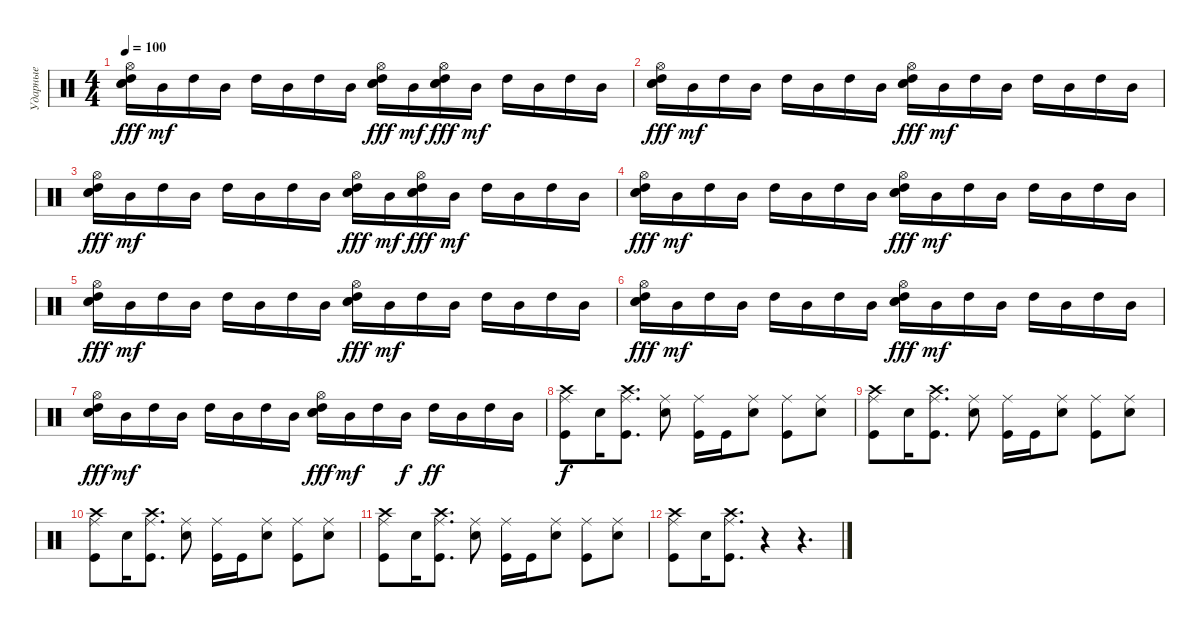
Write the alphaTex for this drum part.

\track ("Ударные" "Ударные") {instrument percussion}
\staff {score}
\articulation defaults
\ts (4 4)
\tempo 100
\clef neutral
\ks c
("Hi-Hat (open)" "High Tom (hit)" "Snare (hit) 2" "Electric Snare (hit)").16{dy fff} "Mid Tom (hit)".16{dy mf} "High Tom (hit)".16 "Mid Tom (hit)".16 "High Tom (hit)".16 "Mid Tom (hit)".16 "High Tom (hit)".16 "Mid Tom (hit)".16 ("Hi-Hat (open)" "High Tom (hit)" "Snare (hit) 2" "Electric Snare (hit)").16{dy fff} "Mid Tom (hit)".16{dy mf} ("Hi-Hat (open)" "High Tom (hit)" "Snare (hit) 2" "Electric Snare (hit)").16{dy fff} "Mid Tom (hit)".16{dy mf} "High Tom (hit)".16 "Mid Tom (hit)".16 "High Tom (hit)".16 "Mid Tom (hit)".16 |
("Hi-Hat (open)" "High Tom (hit)" "Snare (hit) 2" "Electric Snare (hit)").16{dy fff} "Mid Tom (hit)".16{dy mf} "High Tom (hit)".16 "Mid Tom (hit)".16 "High Tom (hit)".16 "Mid Tom (hit)".16 "High Tom (hit)".16 "Mid Tom (hit)".16 ("Hi-Hat (open)" "High Tom (hit)" "Snare (hit) 2" "Electric Snare (hit)").16{dy fff} "Mid Tom (hit)".16{dy mf} "High Tom (hit)".16 "Mid Tom (hit)".16 "High Tom (hit)".16 "Mid Tom (hit)".16 "High Tom (hit)".16 "Mid Tom (hit)".16 |
("Hi-Hat (open)" "High Tom (hit)" "Snare (hit) 2" "Electric Snare (hit)").16{dy fff} "Mid Tom (hit)".16{dy mf} "High Tom (hit)".16 "Mid Tom (hit)".16 "High Tom (hit)".16 "Mid Tom (hit)".16 "High Tom (hit)".16 "Mid Tom (hit)".16 ("Hi-Hat (open)" "High Tom (hit)" "Snare (hit) 2" "Electric Snare (hit)").16{dy fff} "Mid Tom (hit)".16{dy mf} ("Hi-Hat (open)" "High Tom (hit)" "Snare (hit) 2" "Electric Snare (hit)").16{dy fff} "Mid Tom (hit)".16{dy mf} "High Tom (hit)".16 "Mid Tom (hit)".16 "High Tom (hit)".16 "Mid Tom (hit)".16 |
("Hi-Hat (open)" "High Tom (hit)" "Snare (hit) 2" "Electric Snare (hit)").16{dy fff} "Mid Tom (hit)".16{dy mf} "High Tom (hit)".16 "Mid Tom (hit)".16 "High Tom (hit)".16 "Mid Tom (hit)".16 "High Tom (hit)".16 "Mid Tom (hit)".16 ("Hi-Hat (open)" "High Tom (hit)" "Snare (hit) 2" "Electric Snare (hit)").16{dy fff} "Mid Tom (hit)".16{dy mf} "High Tom (hit)".16 "Mid Tom (hit)".16 "High Tom (hit)".16 "Mid Tom (hit)".16 "High Tom (hit)".16 "Mid Tom (hit)".16 |
("Hi-Hat (open)" "High Tom (hit)" "Snare (hit) 2" "Electric Snare (hit)").16{dy fff} "Mid Tom (hit)".16{dy mf} "High Tom (hit)".16 "Mid Tom (hit)".16 "High Tom (hit)".16 "Mid Tom (hit)".16 "High Tom (hit)".16 "Mid Tom (hit)".16 ("Hi-Hat (open)" "High Tom (hit)" "Snare (hit) 2" "Electric Snare (hit)").16{dy fff} "Mid Tom (hit)".16{dy mf} "High Tom (hit)".16 "Mid Tom (hit)".16 "High Tom (hit)".16 "Mid Tom (hit)".16 "High Tom (hit)".16 "Mid Tom (hit)".16 |
("Hi-Hat (open)" "High Tom (hit)" "Snare (hit) 2" "Electric Snare (hit)").16{dy fff} "Mid Tom (hit)".16{dy mf} "High Tom (hit)".16 "Mid Tom (hit)".16 "High Tom (hit)".16 "Mid Tom (hit)".16 "High Tom (hit)".16 "Mid Tom (hit)".16 ("Hi-Hat (open)" "High Tom (hit)" "Snare (hit) 2" "Electric Snare (hit)").16{dy fff} "Mid Tom (hit)".16{dy mf} "High Tom (hit)".16 "Mid Tom (hit)".16 "High Tom (hit)".16 "Mid Tom (hit)".16 "High Tom (hit)".16 "Mid Tom (hit)".16 |
("Hi-Hat (open)" "High Tom (hit)" "Snare (hit) 2" "Electric Snare (hit)").16{dy fff} "Mid Tom (hit)".16{dy mf} "High Tom (hit)".16 "Mid Tom (hit)".16 "High Tom (hit)".16 "Mid Tom (hit)".16 "High Tom (hit)".16 "Mid Tom (hit)".16 ("Hi-Hat (open)" "High Tom (hit)" "Snare (hit) 2" "Electric Snare (hit)").16{dy fff} "Mid Tom (hit)".16{dy mf} "High Tom (hit)".16 "Mid Tom (hit)".16{dy f} "High Tom (hit)".16{dy ff} "Mid Tom (hit)".16 "High Tom (hit)".16 "Mid Tom (hit)".16 |
("Kick (hit)" "Ride (middle)" "Crash high (hit)").8{dy f} "Snare (hit) 2".16 ("Kick (hit)" "Ride (middle)" "Crash high (hit)").8{d} ("Snare (hit) 2" "Ride (middle)").8 ("Kick (hit)" "Ride (middle)").16 "Kick (hit)".16 ("Snare (hit) 2" "Ride (middle)").8 ("Kick (hit)" "Ride (middle)").8 ("Snare (hit) 2" "Ride (middle)").8 |
("Kick (hit)" "Ride (middle)" "Crash high (hit)").8 "Snare (hit) 2".16 ("Kick (hit)" "Ride (middle)" "Crash high (hit)").8{d} ("Snare (hit) 2" "Ride (middle)").8 ("Kick (hit)" "Ride (middle)").16 "Kick (hit)".16 ("Snare (hit) 2" "Ride (middle)").8 ("Kick (hit)" "Ride (middle)").8 ("Snare (hit) 2" "Ride (middle)").8 |
("Kick (hit)" "Ride (middle)" "Crash high (hit)").8 "Snare (hit) 2".16 ("Kick (hit)" "Ride (middle)" "Crash high (hit)").8{d} ("Snare (hit) 2" "Ride (middle)").8 ("Kick (hit)" "Ride (middle)").16 "Kick (hit)".16 ("Snare (hit) 2" "Ride (middle)").8 ("Kick (hit)" "Ride (middle)").8 ("Snare (hit) 2" "Ride (middle)").8 |
("Kick (hit)" "Ride (middle)" "Crash high (hit)").8 "Snare (hit) 2".16 ("Kick (hit)" "Ride (middle)" "Crash high (hit)").8{d} ("Snare (hit) 2" "Ride (middle)").8 ("Kick (hit)" "Ride (middle)").16 "Kick (hit)".16 ("Snare (hit) 2" "Ride (middle)").8 ("Kick (hit)" "Ride (middle)").8 ("Snare (hit) 2" "Ride (middle)").8 |
("Kick (hit)" "Ride (middle)" "Crash high (hit)").8 "Snare (hit) 2".16 ("Kick (hit)" "Ride (middle)" "Crash high (hit)").8{d} r.4 r.4{d}
